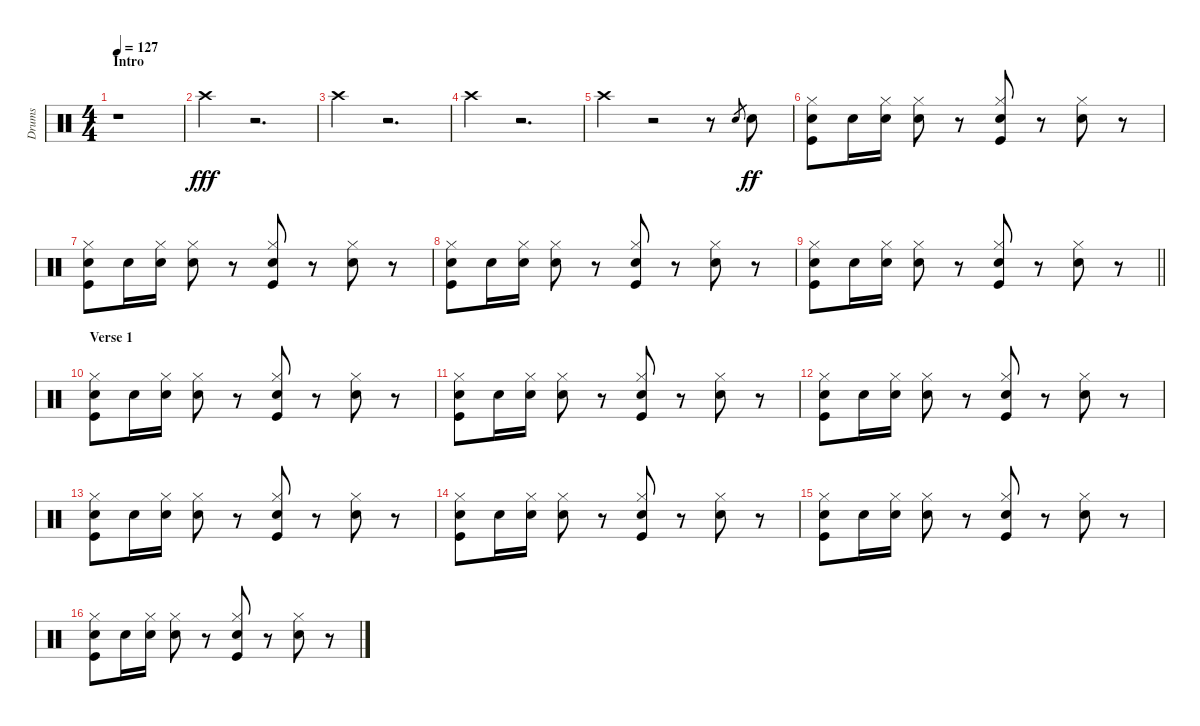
\track ("Drums" "Drums") {instrument percussion}
\staff {score}
\articulation defaults
\ts (4 4)
\section ("" "Intro")
\tempo 127
\clef neutral
\ks c
r.1{dy fff} |
"Crash high (hit)".4 r.2{d} |
"Crash high (hit)".4 r.2{d} |
"Crash high (hit)".4 r.2{d} |
"Crash high (hit)".4 r.2 r.8 "Electric Snare (hit)".8{gr} "Electric Snare (hit)".8{dy ff} |
("Hi-Hat (closed)" "Electric Snare (hit)" "Kick (hit)").8 "Electric Snare (hit)".16 ("Hi-Hat (closed)" "Electric Snare (hit)").16 ("Hi-Hat (closed)" "Electric Snare (hit)").8 r.8 ("Hi-Hat (closed)" "Electric Snare (hit)" "Kick (hit)").8 r.8 ("Hi-Hat (closed)" "Electric Snare (hit)").8 r.8 |
("Hi-Hat (closed)" "Electric Snare (hit)" "Kick (hit)").8 "Electric Snare (hit)".16 ("Hi-Hat (closed)" "Electric Snare (hit)").16 ("Hi-Hat (closed)" "Electric Snare (hit)").8 r.8 ("Hi-Hat (closed)" "Electric Snare (hit)" "Kick (hit)").8 r.8 ("Hi-Hat (closed)" "Electric Snare (hit)").8 r.8 |
("Hi-Hat (closed)" "Electric Snare (hit)" "Kick (hit)").8 "Electric Snare (hit)".16 ("Hi-Hat (closed)" "Electric Snare (hit)").16 ("Hi-Hat (closed)" "Electric Snare (hit)").8 r.8 ("Hi-Hat (closed)" "Electric Snare (hit)" "Kick (hit)").8 r.8 ("Hi-Hat (closed)" "Electric Snare (hit)").8 r.8 |
\barLineRight lightlight
("Hi-Hat (closed)" "Electric Snare (hit)" "Kick (hit)").8 "Electric Snare (hit)".16 ("Hi-Hat (closed)" "Electric Snare (hit)").16 ("Hi-Hat (closed)" "Electric Snare (hit)").8 r.8 ("Hi-Hat (closed)" "Electric Snare (hit)" "Kick (hit)").8 r.8 ("Hi-Hat (closed)" "Electric Snare (hit)").8 r.8 |
\section ("" "Verse 1")
("Hi-Hat (closed)" "Electric Snare (hit)" "Kick (hit)").8 "Electric Snare (hit)".16 ("Hi-Hat (closed)" "Electric Snare (hit)").16 ("Hi-Hat (closed)" "Electric Snare (hit)").8 r.8 ("Hi-Hat (closed)" "Electric Snare (hit)" "Kick (hit)").8 r.8 ("Hi-Hat (closed)" "Electric Snare (hit)").8 r.8 |
("Hi-Hat (closed)" "Electric Snare (hit)" "Kick (hit)").8 "Electric Snare (hit)".16 ("Hi-Hat (closed)" "Electric Snare (hit)").16 ("Hi-Hat (closed)" "Electric Snare (hit)").8 r.8 ("Hi-Hat (closed)" "Electric Snare (hit)" "Kick (hit)").8 r.8 ("Hi-Hat (closed)" "Electric Snare (hit)").8 r.8 |
("Hi-Hat (closed)" "Electric Snare (hit)" "Kick (hit)").8 "Electric Snare (hit)".16 ("Hi-Hat (closed)" "Electric Snare (hit)").16 ("Hi-Hat (closed)" "Electric Snare (hit)").8 r.8 ("Hi-Hat (closed)" "Electric Snare (hit)" "Kick (hit)").8 r.8 ("Hi-Hat (closed)" "Electric Snare (hit)").8 r.8 |
("Hi-Hat (closed)" "Electric Snare (hit)" "Kick (hit)").8 "Electric Snare (hit)".16 ("Hi-Hat (closed)" "Electric Snare (hit)").16 ("Hi-Hat (closed)" "Electric Snare (hit)").8 r.8 ("Hi-Hat (closed)" "Electric Snare (hit)" "Kick (hit)").8 r.8 ("Hi-Hat (closed)" "Electric Snare (hit)").8 r.8 |
("Hi-Hat (closed)" "Electric Snare (hit)" "Kick (hit)").8 "Electric Snare (hit)".16 ("Hi-Hat (closed)" "Electric Snare (hit)").16 ("Hi-Hat (closed)" "Electric Snare (hit)").8 r.8 ("Hi-Hat (closed)" "Electric Snare (hit)" "Kick (hit)").8 r.8 ("Hi-Hat (closed)" "Electric Snare (hit)").8 r.8 |
("Hi-Hat (closed)" "Electric Snare (hit)" "Kick (hit)").8 "Electric Snare (hit)".16 ("Hi-Hat (closed)" "Electric Snare (hit)").16 ("Hi-Hat (closed)" "Electric Snare (hit)").8 r.8 ("Hi-Hat (closed)" "Electric Snare (hit)" "Kick (hit)").8 r.8 ("Hi-Hat (closed)" "Electric Snare (hit)").8 r.8 |
("Hi-Hat (closed)" "Electric Snare (hit)" "Kick (hit)").8 "Electric Snare (hit)".16 ("Hi-Hat (closed)" "Electric Snare (hit)").16 ("Hi-Hat (closed)" "Electric Snare (hit)").8 r.8 ("Hi-Hat (closed)" "Electric Snare (hit)" "Kick (hit)").8 r.8 ("Hi-Hat (closed)" "Electric Snare (hit)").8 r.8
